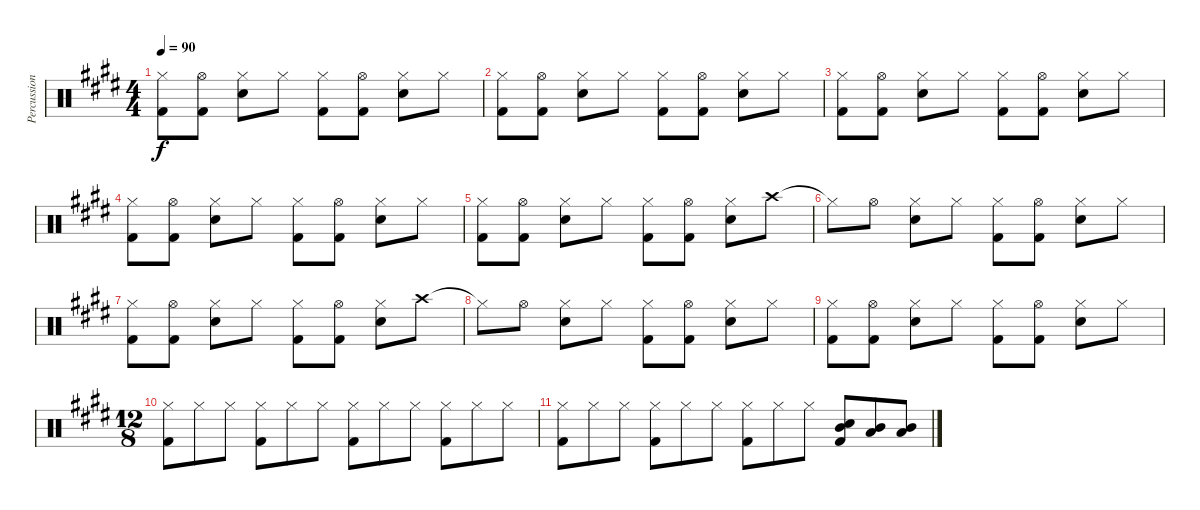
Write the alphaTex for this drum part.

\track ("Percussion" "Percussion") {instrument percussion}
\staff {score}
\articulation defaults
\ts (4 4)
\tempo 90
\clef neutral
\ks e
("Hi-Hat (closed)" "Kick (hit) 2").8{dy f} ("Hi-Hat (open)" "Kick (hit) 2").8 ("Hi-Hat (closed)" "Snare (hit) 2").8 "Hi-Hat (closed)".8 ("Hi-Hat (closed)" "Kick (hit) 2").8 ("Hi-Hat (open)" "Kick (hit) 2").8 ("Hi-Hat (closed)" "Snare (hit) 2").8 "Hi-Hat (closed)".8 |
("Hi-Hat (closed)" "Kick (hit) 2").8 ("Hi-Hat (open)" "Kick (hit) 2").8 ("Hi-Hat (closed)" "Snare (hit) 2").8 "Hi-Hat (closed)".8 ("Hi-Hat (closed)" "Kick (hit) 2").8 ("Hi-Hat (open)" "Kick (hit) 2").8 ("Hi-Hat (closed)" "Snare (hit) 2").8 "Hi-Hat (closed)".8 |
("Hi-Hat (closed)" "Kick (hit) 2").8 ("Hi-Hat (open)" "Kick (hit) 2").8 ("Hi-Hat (closed)" "Snare (hit) 2").8 "Hi-Hat (closed)".8 ("Hi-Hat (closed)" "Kick (hit) 2").8 ("Hi-Hat (open)" "Kick (hit) 2").8 ("Hi-Hat (closed)" "Snare (hit) 2").8 "Hi-Hat (closed)".8 |
("Hi-Hat (closed)" "Kick (hit) 2").8 ("Hi-Hat (open)" "Kick (hit) 2").8 ("Hi-Hat (closed)" "Snare (hit) 2").8 "Hi-Hat (closed)".8 ("Hi-Hat (closed)" "Kick (hit) 2").8 ("Hi-Hat (open)" "Kick (hit) 2").8 ("Hi-Hat (closed)" "Snare (hit) 2").8 "Hi-Hat (closed)".8 |
("Hi-Hat (closed)" "Kick (hit) 2").8 ("Hi-Hat (open)" "Kick (hit) 2").8 ("Hi-Hat (closed)" "Snare (hit) 2").8 "Hi-Hat (closed)".8 ("Hi-Hat (closed)" "Kick (hit) 2").8 ("Hi-Hat (open)" "Kick (hit) 2").8 ("Hi-Hat (closed)" "Snare (hit) 2").8 "Crash high (hit)".8 |
"Hi-Hat (closed)"{t}.8 "Hi-Hat (open)".8 ("Hi-Hat (closed)" "Snare (hit) 2").8 "Hi-Hat (closed)".8 ("Hi-Hat (closed)" "Kick (hit) 2").8 ("Hi-Hat (open)" "Kick (hit) 2").8 ("Hi-Hat (closed)" "Snare (hit) 2").8 "Hi-Hat (closed)".8 |
("Hi-Hat (closed)" "Kick (hit) 2").8 ("Hi-Hat (open)" "Kick (hit) 2").8 ("Hi-Hat (closed)" "Snare (hit) 2").8 "Hi-Hat (closed)".8 ("Hi-Hat (closed)" "Kick (hit) 2").8 ("Hi-Hat (open)" "Kick (hit) 2").8 ("Hi-Hat (closed)" "Snare (hit) 2").8 "Crash high (hit)".8 |
"Hi-Hat (closed)"{t}.8 "Hi-Hat (open)".8 ("Hi-Hat (closed)" "Snare (hit) 2").8 "Hi-Hat (closed)".8 ("Hi-Hat (closed)" "Kick (hit) 2").8 ("Hi-Hat (open)" "Kick (hit) 2").8 ("Hi-Hat (closed)" "Snare (hit) 2").8 "Hi-Hat (closed)".8 |
("Hi-Hat (closed)" "Kick (hit) 2").8 ("Hi-Hat (open)" "Kick (hit) 2").8 ("Hi-Hat (closed)" "Snare (hit) 2").8 "Hi-Hat (closed)".8 ("Hi-Hat (closed)" "Kick (hit) 2").8 ("Hi-Hat (open)" "Kick (hit) 2").8 ("Hi-Hat (closed)" "Snare (hit) 2").8 "Hi-Hat (closed)".8 |
\ts (12 8)
("Hi-Hat (closed)" "Kick (hit) 2").8 "Hi-Hat (closed)".8 "Hi-Hat (closed)".8 ("Hi-Hat (closed)" "Kick (hit) 2").8 "Hi-Hat (closed)".8 "Hi-Hat (closed)".8 ("Hi-Hat (closed)" "Kick (hit) 2").8 "Hi-Hat (closed)".8 "Hi-Hat (closed)".8 ("Hi-Hat (closed)" "Kick (hit) 2").8 "Hi-Hat (closed)".8 "Hi-Hat (closed)".8 |
("Hi-Hat (closed)" "Kick (hit) 2").8 "Hi-Hat (closed)".8 "Hi-Hat (closed)".8 ("Hi-Hat (closed)" "Kick (hit) 2").8 "Hi-Hat (closed)".8 "Hi-Hat (closed)".8 ("Hi-Hat (closed)" "Kick (hit) 2").8 "Hi-Hat (closed)".8 "Hi-Hat (closed)".8 ("Mid Tom (hit)" "Snare (hit) 2" "Kick (hit) 2").8 ("Mid Tom (hit)" "Low Floor Tom (hit)").8 ("Mid Tom (hit)" "Low Floor Tom (hit)").8
